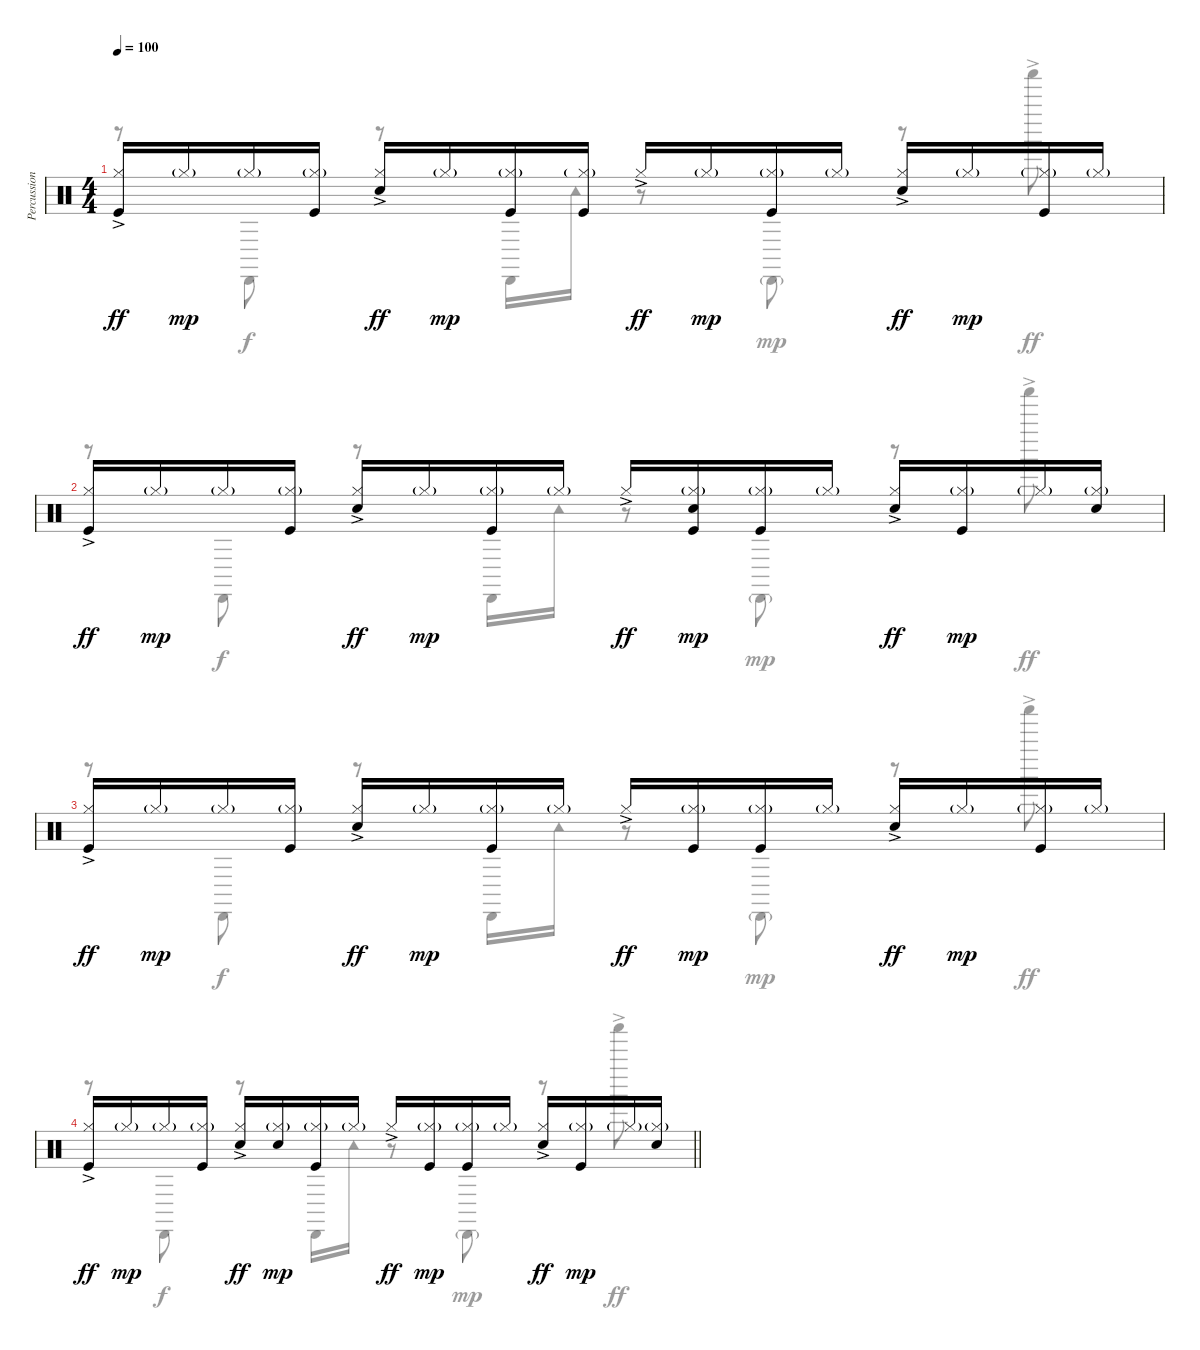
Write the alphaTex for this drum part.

\track ("Percussions" "Percussion") {instrument percussion}
\staff {score}
\articulation defaults
\voice
\ts (4 4)
\tempo 100
\clef neutral
\ks c
("Kick (hit)" "Hi-Hat (closed)"{ac}).16{dy ff} "Hi-Hat (closed)"{g}.16{dy mp} "Hi-Hat (closed)"{g}.16 ("Kick (hit)" "Hi-Hat (closed)"{g}).16 ("Electric Snare (hit)" "Hi-Hat (closed)"{ac}).16{dy ff} "Hi-Hat (closed)"{g}.16{dy mp} ("Kick (hit)" "Hi-Hat (closed)"{g}).16 ("Kick (hit)" "Hi-Hat (closed)"{g}).16 "Hi-Hat (closed)"{ac}.16{dy ff} "Hi-Hat (closed)"{g}.16{dy mp} ("Kick (hit)" "Hi-Hat (closed)"{g}).16 "Hi-Hat (closed)"{g}.16 ("Snare (hit) 2" "Hi-Hat (closed)"{ac}).16{dy ff} "Hi-Hat (closed)"{g}.16{dy mp} ("Kick (hit)" "Hi-Hat (closed)"{g}).16 "Hi-Hat (closed)"{g}.16 |
("Kick (hit)" "Hi-Hat (closed)"{ac}).16{dy ff} "Hi-Hat (closed)"{g}.16{dy mp} "Hi-Hat (closed)"{g}.16 ("Kick (hit)" "Hi-Hat (closed)"{g}).16 ("Electric Snare (hit)" "Hi-Hat (closed)"{ac}).16{dy ff} "Hi-Hat (closed)"{g}.16{dy mp} ("Kick (hit)" "Hi-Hat (closed)"{g}).16 "Hi-Hat (closed)"{g}.16 "Hi-Hat (closed)"{ac}.16{dy ff} ("Kick (hit)" "Electric Snare (hit)" "Hi-Hat (closed)"{g}).16{dy mp} ("Kick (hit)" "Hi-Hat (closed)"{g}).16 "Hi-Hat (closed)"{g}.16 ("Snare (hit) 2" "Hi-Hat (closed)"{ac}).16{dy ff} ("Kick (hit)" "Hi-Hat (closed)"{g}).16{dy mp} "Hi-Hat (closed)"{g}.16 ("Electric Snare (hit)" "Hi-Hat (closed)"{g}).16 |
("Kick (hit)" "Hi-Hat (closed)"{ac}).16{dy ff} "Hi-Hat (closed)"{g}.16{dy mp} "Hi-Hat (closed)"{g}.16 ("Kick (hit)" "Hi-Hat (closed)"{g}).16 ("Electric Snare (hit)" "Hi-Hat (closed)"{ac}).16{dy ff} "Hi-Hat (closed)"{g}.16{dy mp} ("Kick (hit)" "Hi-Hat (closed)"{g}).16 "Hi-Hat (closed)"{g}.16 "Hi-Hat (closed)"{ac}.16{dy ff} ("Kick (hit)" "Hi-Hat (closed)"{g}).16{dy mp} ("Kick (hit)" "Hi-Hat (closed)"{g}).16 "Hi-Hat (closed)"{g}.16 ("Snare (hit) 2" "Hi-Hat (closed)"{ac}).16{dy ff} "Hi-Hat (closed)"{g}.16{dy mp} ("Kick (hit)" "Hi-Hat (closed)"{g}).16 "Hi-Hat (closed)"{g}.16 |
\barLineRight lightlight
("Kick (hit)" "Hi-Hat (closed)"{ac}).16{dy ff} "Hi-Hat (closed)"{g}.16{dy mp} "Hi-Hat (closed)"{g}.16 ("Kick (hit)" "Hi-Hat (closed)"{g}).16 ("Electric Snare (hit)" "Hi-Hat (closed)"{ac}).16{dy ff} ("Electric Snare (hit)" "Hi-Hat (closed)"{g}).16{dy mp} ("Kick (hit)" "Hi-Hat (closed)"{g}).16 "Hi-Hat (closed)"{g}.16 "Hi-Hat (closed)"{ac}.16{dy ff} ("Kick (hit)" "Hi-Hat (closed)"{g}).16{dy mp} ("Kick (hit)" "Hi-Hat (closed)"{g}).16 "Hi-Hat (closed)"{g}.16 ("Snare (hit) 2" "Hi-Hat (closed)"{ac}).16{dy ff} ("Kick (hit)" "Hi-Hat (closed)"{g}).16{dy mp} "Hi-Hat (closed)"{g}.16 ("Snare (hit) 2" "Hi-Hat (closed)"{g}).16
\voice
\clef neutral
\ottava regular
\simile none
\ks c
r.8{dy ff} "Cabasa (hit)".8{dy f} r.8 "Cabasa (hit)".16 "Tambourine (hit)".16 r.8 "Cabasa (hit)"{g}.8{dy mp} r.8 "Shaker (hit)"{ac}.8{dy ff} |
r.8 "Cabasa (hit)".8{dy f} r.8 "Cabasa (hit)".16 "Tambourine (hit)".16 r.8 "Cabasa (hit)"{g}.8{dy mp} r.8 "Shaker (hit)"{ac}.8{dy ff} |
r.8 "Cabasa (hit)".8{dy f} r.8 "Cabasa (hit)".16 "Tambourine (hit)".16 r.8 "Cabasa (hit)"{g}.8{dy mp} r.8 "Shaker (hit)"{ac}.8{dy ff} |
\barLineRight lightlight
r.8 "Cabasa (hit)".8{dy f} r.8 "Cabasa (hit)".16 "Tambourine (hit)".16 r.8 "Cabasa (hit)"{g}.8{dy mp} r.8 "Shaker (hit)"{ac}.8{dy ff}
